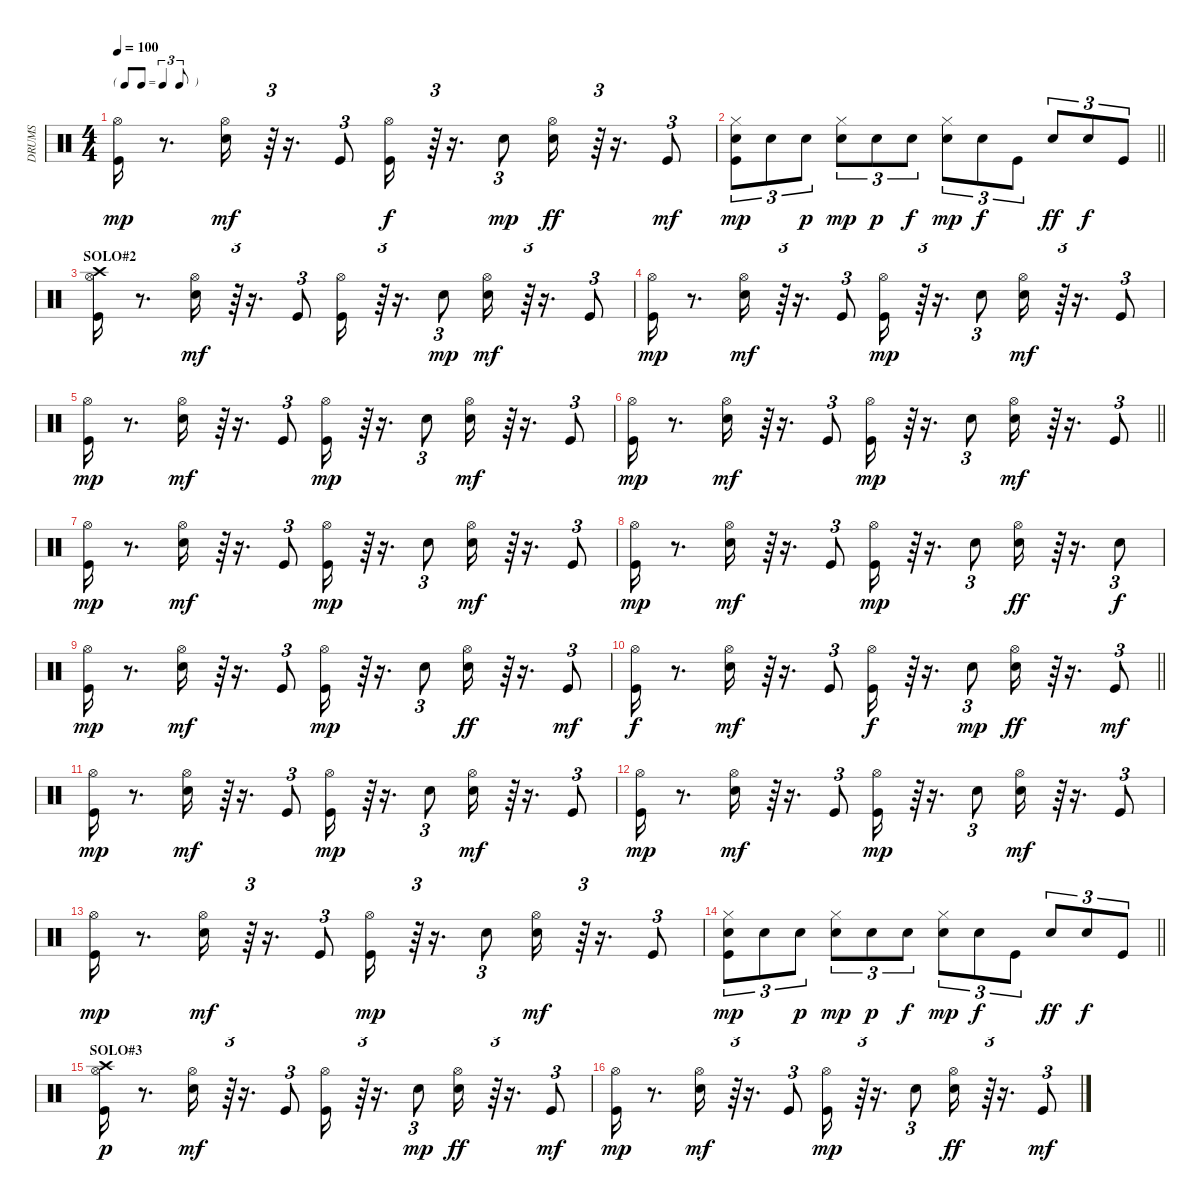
\track ("DRUMS" "DRUMS") {instrument percussion}
\staff {score}
\articulation defaults
\ts (4 4)
\tf triplet8th
\tempo 100
\clef neutral
\ks c
("Kick (hit)" "Hi-Hat (open)").16{dy mp} r.8{d} ("Snare (hit) 2" "Hi-Hat (open)").16{dy mf} r.64{tu (3 2)} r.16{d} "Kick (hit)".8{tu (3 2)} ("Kick (hit)" "Hi-Hat (open)").16{dy f} r.64{tu (3 2)} r.16{d} "Snare (hit) 2".8{tu (3 2) dy mp} ("Snare (hit) 2" "Hi-Hat (open)").16{dy ff} r.64{tu (3 2)} r.16{d} "Kick (hit)".8{tu (3 2) dy mf} |
\barLineRight lightlight
("Kick (hit)" "Snare (hit) 2" "Hi-Hat (closed)").8{tu (3 2) dy mp} "Snare (hit) 2".8{tu (3 2)} "Snare (hit) 2".8{tu (3 2) dy p} ("Snare (hit) 2" "Hi-Hat (closed)").8{tu (3 2) dy mp} "Snare (hit) 2".8{tu (3 2) dy p} "Snare (hit) 2".8{tu (3 2) dy f} ("Snare (hit) 2" "Hi-Hat (closed)").8{tu (3 2) dy mp} "Snare (hit) 2".8{tu (3 2) dy f} "Kick (hit)".8{tu (3 2)} "Snare (hit) 2".8{tu (3 2) dy ff} "Snare (hit) 2".8{tu (3 2) dy f} "Kick (hit)".8{tu (3 2)} |
\section ("" "SOLO#2")
("Kick (hit)" "Hi-Hat (open)" "Crash high (hit)").16 r.8{d} ("Snare (hit) 2" "Hi-Hat (open)").16{dy mf} r.64{tu (3 2)} r.16{d} "Kick (hit)".8{tu (3 2)} ("Kick (hit)" "Hi-Hat (open)").16 r.64{tu (3 2)} r.16{d} "Snare (hit) 2".8{tu (3 2) dy mp} ("Snare (hit) 2" "Hi-Hat (open)").16{dy mf} r.64{tu (3 2)} r.16{d} "Kick (hit)".8{tu (3 2)} |
("Kick (hit)" "Hi-Hat (open)").16{dy mp} r.8{d} ("Snare (hit) 2" "Hi-Hat (open)").16{dy mf} r.64{tu (3 2)} r.16{d} "Kick (hit)".8{tu (3 2)} ("Kick (hit)" "Hi-Hat (open)").16{dy mp} r.64{tu (3 2)} r.16{d} "Snare (hit) 2".8{tu (3 2)} ("Snare (hit) 2" "Hi-Hat (open)").16{dy mf} r.64{tu (3 2)} r.16{d} "Kick (hit)".8{tu (3 2)} |
("Kick (hit)" "Hi-Hat (open)").16{dy mp} r.8{d} ("Snare (hit) 2" "Hi-Hat (open)").16{dy mf} r.64{tu (3 2)} r.16{d} "Kick (hit)".8{tu (3 2)} ("Kick (hit)" "Hi-Hat (open)").16{dy mp} r.64{tu (3 2)} r.16{d} "Snare (hit) 2".8{tu (3 2)} ("Snare (hit) 2" "Hi-Hat (open)").16{dy mf} r.64{tu (3 2)} r.16{d} "Kick (hit)".8{tu (3 2)} |
\barLineRight lightlight
("Kick (hit)" "Hi-Hat (open)").16{dy mp} r.8{d} ("Snare (hit) 2" "Hi-Hat (open)").16{dy mf} r.64{tu (3 2)} r.16{d} "Kick (hit)".8{tu (3 2)} ("Kick (hit)" "Hi-Hat (open)").16{dy mp} r.64{tu (3 2)} r.16{d} "Snare (hit) 2".8{tu (3 2)} ("Snare (hit) 2" "Hi-Hat (open)").16{dy mf} r.64{tu (3 2)} r.16{d} "Kick (hit)".8{tu (3 2)} |
("Kick (hit)" "Hi-Hat (open)").16{dy mp} r.8{d} ("Snare (hit) 2" "Hi-Hat (open)").16{dy mf} r.64{tu (3 2)} r.16{d} "Kick (hit)".8{tu (3 2)} ("Kick (hit)" "Hi-Hat (open)").16{dy mp} r.64{tu (3 2)} r.16{d} "Snare (hit) 2".8{tu (3 2)} ("Snare (hit) 2" "Hi-Hat (open)").16{dy mf} r.64{tu (3 2)} r.16{d} "Kick (hit)".8{tu (3 2)} |
("Kick (hit)" "Hi-Hat (open)").16{dy mp} r.8{d} ("Snare (hit) 2" "Hi-Hat (open)").16{dy mf} r.64{tu (3 2)} r.16{d} "Kick (hit)".8{tu (3 2)} ("Kick (hit)" "Hi-Hat (open)").16{dy mp} r.64{tu (3 2)} r.16{d} "Snare (hit) 2".8{tu (3 2)} ("Snare (hit) 2" "Hi-Hat (open)").16{dy ff} r.64{tu (3 2)} r.16{d} "Snare (hit) 2".8{tu (3 2) dy f} |
("Kick (hit)" "Hi-Hat (open)").16{dy mp} r.8{d} ("Snare (hit) 2" "Hi-Hat (open)").16{dy mf} r.64{tu (3 2)} r.16{d} "Kick (hit)".8{tu (3 2)} ("Kick (hit)" "Hi-Hat (open)").16{dy mp} r.64{tu (3 2)} r.16{d} "Snare (hit) 2".8{tu (3 2)} ("Snare (hit) 2" "Hi-Hat (open)").16{dy ff} r.64{tu (3 2)} r.16{d} "Kick (hit)".8{tu (3 2) dy mf} |
\barLineRight lightlight
("Kick (hit)" "Hi-Hat (open)").16{dy f} r.8{d} ("Snare (hit) 2" "Hi-Hat (open)").16{dy mf} r.64{tu (3 2)} r.16{d} "Kick (hit)".8{tu (3 2)} ("Kick (hit)" "Hi-Hat (open)").16{dy f} r.64{tu (3 2)} r.16{d} "Snare (hit) 2".8{tu (3 2) dy mp} ("Snare (hit) 2" "Hi-Hat (open)").16{dy ff} r.64{tu (3 2)} r.16{d} "Kick (hit)".8{tu (3 2) dy mf} |
("Kick (hit)" "Hi-Hat (open)").16{dy mp} r.8{d} ("Snare (hit) 2" "Hi-Hat (open)").16{dy mf} r.64{tu (3 2)} r.16{d} "Kick (hit)".8{tu (3 2)} ("Kick (hit)" "Hi-Hat (open)").16{dy mp} r.64{tu (3 2)} r.16{d} "Snare (hit) 2".8{tu (3 2)} ("Snare (hit) 2" "Hi-Hat (open)").16{dy mf} r.64{tu (3 2)} r.16{d} "Kick (hit)".8{tu (3 2)} |
("Kick (hit)" "Hi-Hat (open)").16{dy mp} r.8{d} ("Snare (hit) 2" "Hi-Hat (open)").16{dy mf} r.64{tu (3 2)} r.16{d} "Kick (hit)".8{tu (3 2)} ("Kick (hit)" "Hi-Hat (open)").16{dy mp} r.64{tu (3 2)} r.16{d} "Snare (hit) 2".8{tu (3 2)} ("Snare (hit) 2" "Hi-Hat (open)").16{dy mf} r.64{tu (3 2)} r.16{d} "Kick (hit)".8{tu (3 2)} |
("Kick (hit)" "Hi-Hat (open)").16{dy mp} r.8{d} ("Snare (hit) 2" "Hi-Hat (open)").16{dy mf} r.64{tu (3 2)} r.16{d} "Kick (hit)".8{tu (3 2)} ("Kick (hit)" "Hi-Hat (open)").16{dy mp} r.64{tu (3 2)} r.16{d} "Snare (hit) 2".8{tu (3 2)} ("Snare (hit) 2" "Hi-Hat (open)").16{dy mf} r.64{tu (3 2)} r.16{d} "Kick (hit)".8{tu (3 2)} |
\barLineRight lightlight
("Kick (hit)" "Snare (hit) 2" "Hi-Hat (closed)").8{tu (3 2) dy mp} "Snare (hit) 2".8{tu (3 2)} "Snare (hit) 2".8{tu (3 2) dy p} ("Snare (hit) 2" "Hi-Hat (closed)").8{tu (3 2) dy mp} "Snare (hit) 2".8{tu (3 2) dy p} "Snare (hit) 2".8{tu (3 2) dy f} ("Snare (hit) 2" "Hi-Hat (closed)").8{tu (3 2) dy mp} "Snare (hit) 2".8{tu (3 2) dy f} "Kick (hit)".8{tu (3 2)} "Snare (hit) 2".8{tu (3 2) dy ff} "Snare (hit) 2".8{tu (3 2) dy f} "Kick (hit)".8{tu (3 2)} |
\section ("" "SOLO#3")
("Kick (hit)" "Hi-Hat (open)" "Crash high (hit)").16{dy p} r.8{d} ("Snare (hit) 2" "Hi-Hat (open)").16{dy mf} r.64{tu (3 2)} r.16{d} "Kick (hit)".8{tu (3 2)} ("Kick (hit)" "Hi-Hat (open)").16 r.64{tu (3 2)} r.16{d} "Snare (hit) 2".8{tu (3 2) dy mp} ("Snare (hit) 2" "Hi-Hat (open)").16{dy ff} r.64{tu (3 2)} r.16{d} "Kick (hit)".8{tu (3 2) dy mf} |
("Kick (hit)" "Hi-Hat (open)").16{dy mp} r.8{d} ("Snare (hit) 2" "Hi-Hat (open)").16{dy mf} r.64{tu (3 2)} r.16{d} "Kick (hit)".8{tu (3 2)} ("Kick (hit)" "Hi-Hat (open)").16{dy mp} r.64{tu (3 2)} r.16{d} "Snare (hit) 2".8{tu (3 2)} ("Snare (hit) 2" "Hi-Hat (open)").16{dy ff} r.64{tu (3 2)} r.16{d} "Kick (hit)".8{tu (3 2) dy mf}
